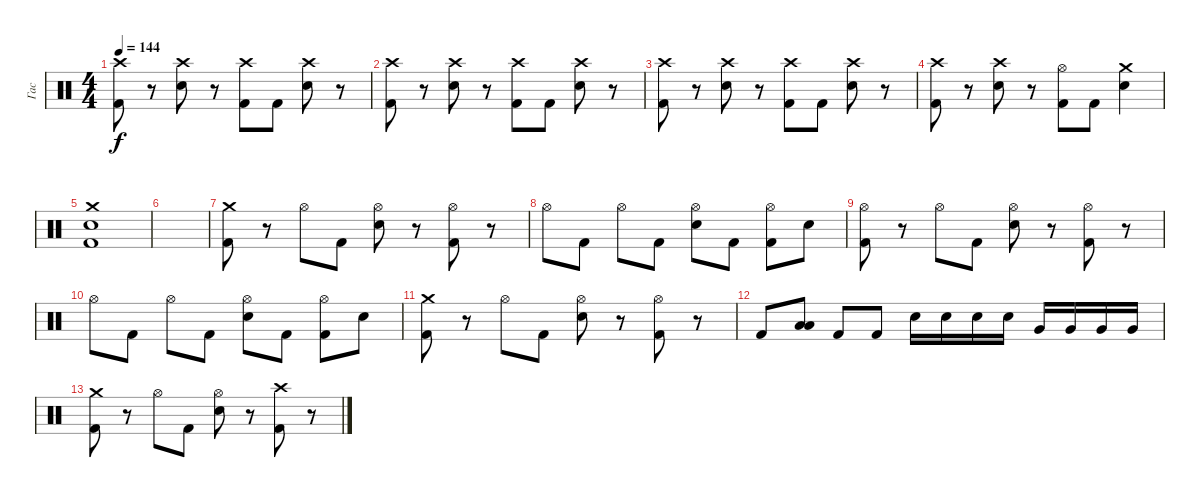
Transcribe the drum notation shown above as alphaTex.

\track ("Гас" "Гас") {instrument percussion}
\staff {score}
\articulation defaults
\ts (4 4)
\tempo 144
\clef neutral
\ks c
("Crash high (hit)" "Kick (hit) 2").8{dy f} r.8 ("Crash high (hit)" "Electric Snare (hit)").8 r.8 ("Crash high (hit)" "Kick (hit) 2").8 "Kick (hit) 2".8 ("Crash high (hit)" "Electric Snare (hit)").8 r.8 |
("Crash high (hit)" "Kick (hit) 2").8 r.8 ("Crash high (hit)" "Electric Snare (hit)").8 r.8 ("Crash high (hit)" "Kick (hit) 2").8 "Kick (hit) 2".8 ("Crash high (hit)" "Electric Snare (hit)").8 r.8 |
("Crash high (hit)" "Kick (hit) 2").8 r.8 ("Crash high (hit)" "Electric Snare (hit)").8 r.8 ("Crash high (hit)" "Kick (hit) 2").8 "Kick (hit) 2".8 ("Crash high (hit)" "Electric Snare (hit)").8 r.8 |
("Crash high (hit)" "Kick (hit) 2").8 r.8 ("Crash high (hit)" "Electric Snare (hit)").8 r.8 ("Hi-Hat (open)" "Kick (hit) 2").8 "Kick (hit) 2".8 ("Crash medium (hit)" "Electric Snare (hit)").4 |
("Crash medium (hit)" "Snare (hit) 2" "Kick (hit) 2").1 |
|
("Crash medium (hit)" "Kick (hit) 2").8 r.8 "Hi-Hat (open)".8 "Kick (hit) 2".8 ("Hi-Hat (open)" "Electric Snare (hit)").8 r.8 ("Hi-Hat (open)" "Kick (hit) 2").8 r.8 |
"Hi-Hat (open)".8 "Kick (hit) 2".8 "Hi-Hat (open)".8 "Kick (hit) 2".8 ("Hi-Hat (open)" "Electric Snare (hit)").8 "Kick (hit) 2".8 ("Hi-Hat (open)" "Kick (hit) 2").8 "Electric Snare (hit)".8 |
("Hi-Hat (open)" "Kick (hit) 2").8 r.8 "Hi-Hat (open)".8 "Kick (hit) 2".8 ("Hi-Hat (open)" "Electric Snare (hit)").8 r.8 ("Hi-Hat (open)" "Kick (hit) 2").8 r.8 |
"Hi-Hat (open)".8 "Kick (hit) 2".8 "Hi-Hat (open)".8 "Kick (hit) 2".8 ("Hi-Hat (open)" "Electric Snare (hit)").8 "Kick (hit) 2".8 ("Hi-Hat (open)" "Kick (hit) 2").8 "Electric Snare (hit)".8 |
("Crash medium (hit)" "Kick (hit) 2").8 r.8 "Hi-Hat (open)".8 "Kick (hit) 2".8 ("Hi-Hat (open)" "Electric Snare (hit)").8 r.8 ("Hi-Hat (open)" "Kick (hit) 2").8 r.8 |
"Kick (hit) 2".8 ("Low Tom (hit)" "Low Tom (hit)").8 "Kick (hit) 2".8 "Kick (hit) 2".8 "Electric Snare (hit)".16 "Electric Snare (hit)".16 "Electric Snare (hit)".16 "Electric Snare (hit)".16 "Very Low Tom (hit)".16 "Very Low Tom (hit)".16 "Very Low Tom (hit)".16 "Very Low Tom (hit)".16 |
("Crash medium (hit)" "Kick (hit) 2").8 r.8 "Hi-Hat (open)".8 "Kick (hit) 2".8 ("Hi-Hat (open)" "Electric Snare (hit)").8 r.8 ("Crash high (hit)" "Kick (hit) 2").8 r.8
